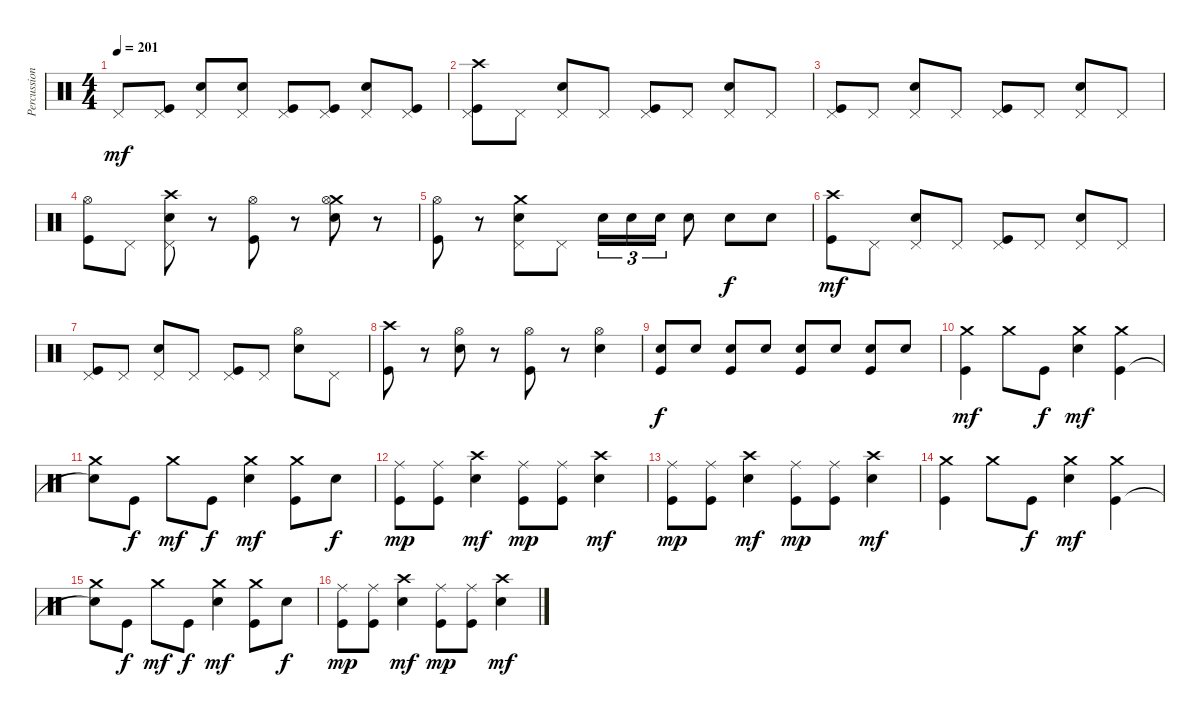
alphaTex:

\track ("Percussion" "Percussion") {instrument percussion}
\staff {score}
\articulation defaults
\ts (4 4)
\tempo 201
\clef neutral
\ks c "Pedal Hi-Hat (hit)".8{dy mf}
("Pedal Hi-Hat (hit)" "Kick (hit)").8 ("Pedal Hi-Hat (hit)" "Electric Snare (hit)").8 ("Pedal Hi-Hat (hit)" "Electric Snare (hit)").8 ("Pedal Hi-Hat (hit)" "Kick (hit)").8 ("Pedal Hi-Hat (hit)" "Kick (hit)").8 ("Pedal Hi-Hat (hit)" "Electric Snare (hit)").8 ("Pedal Hi-Hat (hit)" "Kick (hit)").8 |
("Crash high (hit)" "Pedal Hi-Hat (hit)" "Kick (hit)").8 "Pedal Hi-Hat (hit)".8 ("Pedal Hi-Hat (hit)" "Electric Snare (hit)").8 "Pedal Hi-Hat (hit)".8 ("Pedal Hi-Hat (hit)" "Kick (hit)").8 "Pedal Hi-Hat (hit)".8 ("Pedal Hi-Hat (hit)" "Electric Snare (hit)").8 "Pedal Hi-Hat (hit)".8 |
("Pedal Hi-Hat (hit)" "Kick (hit)").8 "Pedal Hi-Hat (hit)".8 ("Pedal Hi-Hat (hit)" "Electric Snare (hit)").8 "Pedal Hi-Hat (hit)".8 ("Pedal Hi-Hat (hit)" "Kick (hit)").8 "Pedal Hi-Hat (hit)".8 ("Pedal Hi-Hat (hit)" "Electric Snare (hit)").8 "Pedal Hi-Hat (hit)".8 |
("Hi-Hat (open)" "Kick (hit)").8 "Pedal Hi-Hat (hit)".8 ("Crash high (hit)" "Pedal Hi-Hat (hit)" "Electric Snare (hit)").8 r.8 ("Hi-Hat (open)" "Kick (hit)").8 r.8 ("Crash medium (hit)" "Hi-Hat (open)" "Electric Snare (hit)").8 r.8 |
("Hi-Hat (open)" "Kick (hit)").8 r.8 ("Crash medium (hit)" "Pedal Hi-Hat (hit)" "Electric Snare (hit)").8 "Pedal Hi-Hat (hit)".8 "Electric Snare (hit)".16{tu (3 2)} "Electric Snare (hit)".16{tu (3 2)} "Electric Snare (hit)".16{tu (3 2)} "Electric Snare (hit)".8 "Electric Snare (hit)".8{dy f} "Electric Snare (hit)".8 |
("Crash high (hit)" "Kick (hit)").8{dy mf} "Pedal Hi-Hat (hit)".8 ("Pedal Hi-Hat (hit)" "Electric Snare (hit)").8 "Pedal Hi-Hat (hit)".8 ("Pedal Hi-Hat (hit)" "Kick (hit)").8 "Pedal Hi-Hat (hit)".8 ("Pedal Hi-Hat (hit)" "Electric Snare (hit)").8 "Pedal Hi-Hat (hit)".8 |
("Pedal Hi-Hat (hit)" "Kick (hit)").8 "Pedal Hi-Hat (hit)".8 ("Pedal Hi-Hat (hit)" "Electric Snare (hit)").8 "Pedal Hi-Hat (hit)".8 ("Pedal Hi-Hat (hit)" "Kick (hit)").8 "Pedal Hi-Hat (hit)".8 ("Hi-Hat (open)" "Electric Snare (hit)").8 "Pedal Hi-Hat (hit)".8 |
("Crash high (hit)" "Kick (hit)").8 r.8 ("Hi-Hat (open)" "Electric Snare (hit)").8 r.8 ("Hi-Hat (open)" "Kick (hit)").8 r.8 ("Hi-Hat (open)" "Electric Snare (hit)").4 |
("Electric Snare (hit)" "Kick (hit)").8{dy f} "Electric Snare (hit)".8 ("Electric Snare (hit)" "Kick (hit)").8 "Electric Snare (hit)".8 ("Electric Snare (hit)" "Kick (hit)").8 "Electric Snare (hit)".8 ("Electric Snare (hit)" "Kick (hit)").8 "Electric Snare (hit)".8 |
("Crash medium (hit)" "Kick (hit)").4{dy mf} "Crash medium (hit)".8 "Kick (hit)".8{dy f} ("Crash medium (hit)" "Electric Snare (hit)").4{dy mf} ("Crash medium (hit)" "Kick (hit)").4 |
("Crash medium (hit)" "Snare (hit)"{t}).8 "Kick (hit)".8{dy f} "Crash medium (hit)".8{dy mf} "Kick (hit)".8{dy f} ("Crash medium (hit)" "Electric Snare (hit)").4{dy mf} ("Crash medium (hit)" "Kick (hit)").8 "Electric Snare (hit)".8{dy f} |
("Ride (middle)" "Kick (hit)").8{dy mp} ("Ride (middle)" "Kick (hit)").8 ("Crash high (hit)" "Electric Snare (hit)").4{dy mf} ("Ride (middle)" "Kick (hit)").8{dy mp} ("Ride (middle)" "Kick (hit)").8 ("Crash high (hit)" "Electric Snare (hit)").4{dy mf} |
("Ride (middle)" "Kick (hit)").8{dy mp} ("Ride (middle)" "Kick (hit)").8 ("Crash high (hit)" "Electric Snare (hit)").4{dy mf} ("Ride (middle)" "Kick (hit)").8{dy mp} ("Ride (middle)" "Kick (hit)").8 ("Crash high (hit)" "Electric Snare (hit)").4{dy mf} |
("Crash medium (hit)" "Kick (hit)").4 "Crash medium (hit)".8 "Kick (hit)".8{dy f} ("Crash medium (hit)" "Electric Snare (hit)").4{dy mf} ("Crash medium (hit)" "Kick (hit)").4 |
("Crash medium (hit)" "Snare (hit)"{t}).8 "Kick (hit)".8{dy f} "Crash medium (hit)".8{dy mf} "Kick (hit)".8{dy f} ("Crash medium (hit)" "Electric Snare (hit)").4{dy mf} ("Crash medium (hit)" "Kick (hit)").8 "Electric Snare (hit)".8{dy f} |
("Ride (middle)" "Kick (hit)").8{dy mp} ("Ride (middle)" "Kick (hit)").8 ("Crash high (hit)" "Electric Snare (hit)").4{dy mf} ("Ride (middle)" "Kick (hit)").8{dy mp} ("Ride (middle)" "Kick (hit)").8 ("Crash high (hit)" "Electric Snare (hit)").4{dy mf}
